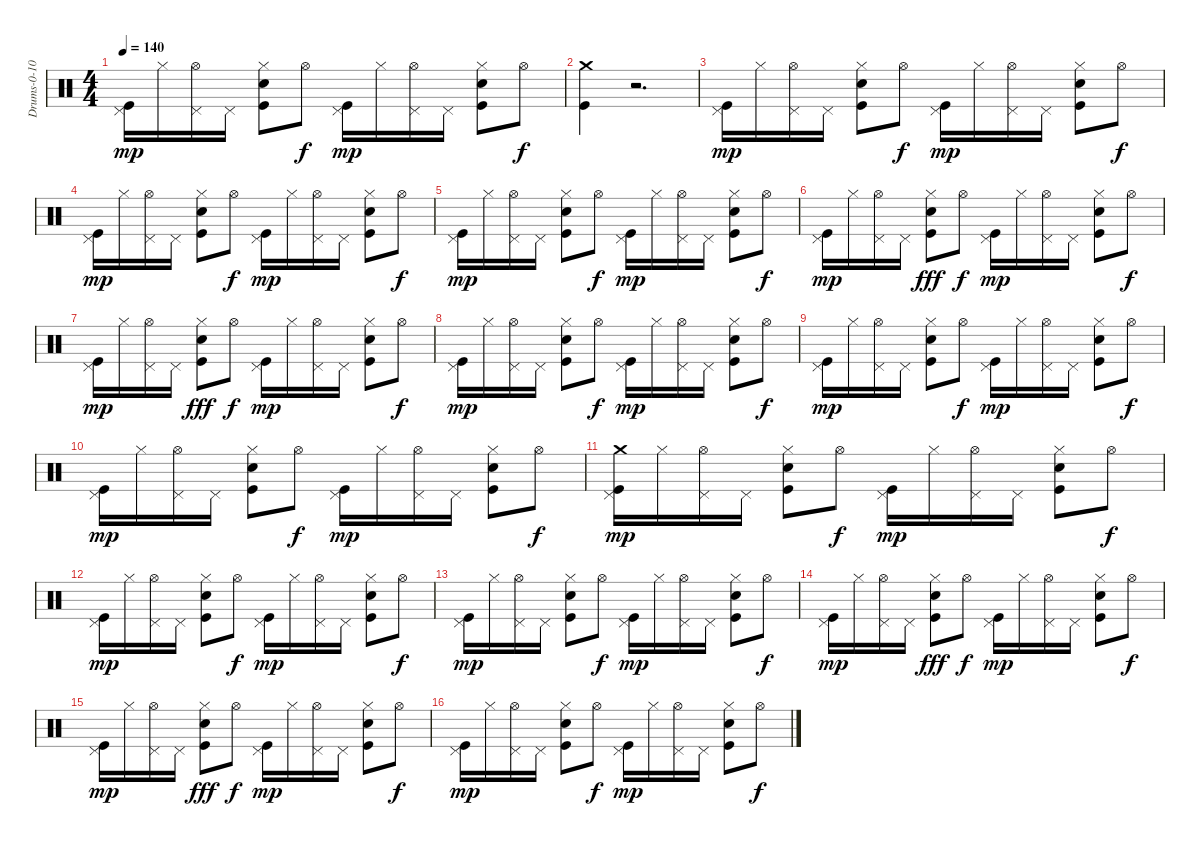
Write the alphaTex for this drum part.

\track ("Drums-0-10" "Drums-0-10") {instrument percussion}
\staff {score}
\articulation defaults
\ts (4 4)
\tempo 140
\clef neutral
\ks c
("Kick (hit)" "Pedal Hi-Hat (hit)").16{dy mp} "Hi-Hat (closed)".16 ("Pedal Hi-Hat (hit)" "Hi-Hat (open)").16 "Pedal Hi-Hat (hit)".16 ("Kick (hit)" "Hand Clap (hit)" "Hi-Hat (closed)").8 "Hi-Hat (open)".8{dy f} ("Kick (hit)" "Pedal Hi-Hat (hit)").16{dy mp} "Hi-Hat (closed)".16 ("Pedal Hi-Hat (hit)" "Hi-Hat (open)").16 "Pedal Hi-Hat (hit)".16 ("Kick (hit)" "Hand Clap (hit)" "Hi-Hat (closed)").8 "Hi-Hat (open)".8{dy f} |
("Crash medium (hit)" "Kick (hit)").4 r.2{d} |
("Kick (hit)" "Pedal Hi-Hat (hit)").16{dy mp} "Hi-Hat (closed)".16 ("Hi-Hat (open)" "Pedal Hi-Hat (hit)").16 "Pedal Hi-Hat (hit)".16 ("Kick (hit)" "Hand Clap (hit)" "Hi-Hat (closed)").8 "Hi-Hat (open)".8{dy f} ("Pedal Hi-Hat (hit)" "Kick (hit)").16{dy mp} "Hi-Hat (closed)".16 ("Pedal Hi-Hat (hit)" "Hi-Hat (open)").16 "Pedal Hi-Hat (hit)".16 ("Hi-Hat (closed)" "Hand Clap (hit)" "Kick (hit)").8 "Hi-Hat (open)".8{dy f} |
("Kick (hit)" "Pedal Hi-Hat (hit)").16{dy mp} "Hi-Hat (closed)".16 ("Hi-Hat (open)" "Pedal Hi-Hat (hit)").16 "Pedal Hi-Hat (hit)".16 ("Kick (hit)" "Hand Clap (hit)" "Hi-Hat (closed)").8 "Hi-Hat (open)".8{dy f} ("Pedal Hi-Hat (hit)" "Kick (hit)").16{dy mp} "Hi-Hat (closed)".16 ("Pedal Hi-Hat (hit)" "Hi-Hat (open)").16 "Pedal Hi-Hat (hit)".16 ("Kick (hit)" "Hand Clap (hit)" "Hi-Hat (closed)").8 "Hi-Hat (open)".8{dy f} |
("Kick (hit)" "Pedal Hi-Hat (hit)").16{dy mp} "Hi-Hat (closed)".16 ("Hi-Hat (open)" "Pedal Hi-Hat (hit)").16 "Pedal Hi-Hat (hit)".16 ("Hand Clap (hit)" "Kick (hit)" "Hi-Hat (closed)").8 "Hi-Hat (open)".8{dy f} ("Kick (hit)" "Pedal Hi-Hat (hit)").16{dy mp} "Hi-Hat (closed)".16 ("Pedal Hi-Hat (hit)" "Hi-Hat (open)").16 "Pedal Hi-Hat (hit)".16 ("Hand Clap (hit)" "Kick (hit)" "Hi-Hat (closed)").8 "Hi-Hat (open)".8{dy f} |
("Pedal Hi-Hat (hit)" "Kick (hit)").16{dy mp} "Hi-Hat (closed)".16 ("Pedal Hi-Hat (hit)" "Hi-Hat (open)").16 "Pedal Hi-Hat (hit)".16 ("Kick (hit)" "Hi-Hat (closed)" "Hand Clap (hit)").8{dy fff} "Hi-Hat (open)".8{dy f} ("Kick (hit)" "Pedal Hi-Hat (hit)").16{dy mp} "Hi-Hat (closed)".16 ("Hi-Hat (open)" "Pedal Hi-Hat (hit)").16 "Pedal Hi-Hat (hit)".16 ("Hand Clap (hit)" "Kick (hit)" "Hi-Hat (closed)").8 "Hi-Hat (open)".8{dy f} |
("Pedal Hi-Hat (hit)" "Kick (hit)").16{dy mp} "Hi-Hat (closed)".16 ("Hi-Hat (open)" "Pedal Hi-Hat (hit)").16 "Pedal Hi-Hat (hit)".16 ("Kick (hit)" "Hi-Hat (closed)" "Hand Clap (hit)").8{dy fff} "Hi-Hat (open)".8{dy f} ("Pedal Hi-Hat (hit)" "Kick (hit)").16{dy mp} "Hi-Hat (closed)".16 ("Pedal Hi-Hat (hit)" "Hi-Hat (open)").16 "Pedal Hi-Hat (hit)".16 ("Hand Clap (hit)" "Kick (hit)" "Hi-Hat (closed)").8 "Hi-Hat (open)".8{dy f} |
("Pedal Hi-Hat (hit)" "Kick (hit)").16{dy mp} "Hi-Hat (closed)".16 ("Hi-Hat (open)" "Pedal Hi-Hat (hit)").16 "Pedal Hi-Hat (hit)".16 ("Kick (hit)" "Hand Clap (hit)" "Hi-Hat (closed)").8 "Hi-Hat (open)".8{dy f} ("Kick (hit)" "Pedal Hi-Hat (hit)").16{dy mp} "Hi-Hat (closed)".16 ("Pedal Hi-Hat (hit)" "Hi-Hat (open)").16 "Pedal Hi-Hat (hit)".16 ("Hand Clap (hit)" "Kick (hit)" "Hi-Hat (closed)").8 "Hi-Hat (open)".8{dy f} |
("Pedal Hi-Hat (hit)" "Kick (hit)").16{dy mp} "Hi-Hat (closed)".16 ("Pedal Hi-Hat (hit)" "Hi-Hat (open)").16 "Pedal Hi-Hat (hit)".16 ("Kick (hit)" "Hand Clap (hit)" "Hi-Hat (closed)").8 "Hi-Hat (open)".8{dy f} ("Kick (hit)" "Pedal Hi-Hat (hit)").16{dy mp} "Hi-Hat (closed)".16 ("Hi-Hat (open)" "Pedal Hi-Hat (hit)").16 "Pedal Hi-Hat (hit)".16 ("Kick (hit)" "Hi-Hat (closed)" "Hand Clap (hit)").8 "Hi-Hat (open)".8{dy f} |
("Pedal Hi-Hat (hit)" "Kick (hit)").16{dy mp} "Hi-Hat (closed)".16 ("Pedal Hi-Hat (hit)" "Hi-Hat (open)").16 "Pedal Hi-Hat (hit)".16 ("Hand Clap (hit)" "Kick (hit)" "Hi-Hat (closed)").8 "Hi-Hat (open)".8{dy f} ("Kick (hit)" "Pedal Hi-Hat (hit)").16{dy mp} "Hi-Hat (closed)".16 ("Hi-Hat (open)" "Pedal Hi-Hat (hit)").16 "Pedal Hi-Hat (hit)".16 ("Kick (hit)" "Hand Clap (hit)" "Hi-Hat (closed)").8 "Hi-Hat (open)".8{dy f} |
("Crash medium (hit)" "Kick (hit)" "Pedal Hi-Hat (hit)").16{dy mp} "Hi-Hat (closed)".16 ("Hi-Hat (open)" "Pedal Hi-Hat (hit)").16 "Pedal Hi-Hat (hit)".16 ("Kick (hit)" "Hand Clap (hit)" "Hi-Hat (closed)").8 "Hi-Hat (open)".8{dy f} ("Pedal Hi-Hat (hit)" "Kick (hit)").16{dy mp} "Hi-Hat (closed)".16 ("Pedal Hi-Hat (hit)" "Hi-Hat (open)").16 "Pedal Hi-Hat (hit)".16 ("Hi-Hat (closed)" "Hand Clap (hit)" "Kick (hit)").8 "Hi-Hat (open)".8{dy f} |
("Kick (hit)" "Pedal Hi-Hat (hit)").16{dy mp} "Hi-Hat (closed)".16 ("Hi-Hat (open)" "Pedal Hi-Hat (hit)").16 "Pedal Hi-Hat (hit)".16 ("Kick (hit)" "Hand Clap (hit)" "Hi-Hat (closed)").8 "Hi-Hat (open)".8{dy f} ("Pedal Hi-Hat (hit)" "Kick (hit)").16{dy mp} "Hi-Hat (closed)".16 ("Pedal Hi-Hat (hit)" "Hi-Hat (open)").16 "Pedal Hi-Hat (hit)".16 ("Kick (hit)" "Hand Clap (hit)" "Hi-Hat (closed)").8 "Hi-Hat (open)".8{dy f} |
("Kick (hit)" "Pedal Hi-Hat (hit)").16{dy mp} "Hi-Hat (closed)".16 ("Hi-Hat (open)" "Pedal Hi-Hat (hit)").16 "Pedal Hi-Hat (hit)".16 ("Hand Clap (hit)" "Kick (hit)" "Hi-Hat (closed)").8 "Hi-Hat (open)".8{dy f} ("Kick (hit)" "Pedal Hi-Hat (hit)").16{dy mp} "Hi-Hat (closed)".16 ("Pedal Hi-Hat (hit)" "Hi-Hat (open)").16 "Pedal Hi-Hat (hit)".16 ("Hand Clap (hit)" "Kick (hit)" "Hi-Hat (closed)").8 "Hi-Hat (open)".8{dy f} |
("Pedal Hi-Hat (hit)" "Kick (hit)").16{dy mp} "Hi-Hat (closed)".16 ("Pedal Hi-Hat (hit)" "Hi-Hat (open)").16 "Pedal Hi-Hat (hit)".16 ("Kick (hit)" "Hi-Hat (closed)" "Hand Clap (hit)").8{dy fff} "Hi-Hat (open)".8{dy f} ("Kick (hit)" "Pedal Hi-Hat (hit)").16{dy mp} "Hi-Hat (closed)".16 ("Hi-Hat (open)" "Pedal Hi-Hat (hit)").16 "Pedal Hi-Hat (hit)".16 ("Hand Clap (hit)" "Kick (hit)" "Hi-Hat (closed)").8 "Hi-Hat (open)".8{dy f} |
("Pedal Hi-Hat (hit)" "Kick (hit)").16{dy mp} "Hi-Hat (closed)".16 ("Hi-Hat (open)" "Pedal Hi-Hat (hit)").16 "Pedal Hi-Hat (hit)".16 ("Kick (hit)" "Hi-Hat (closed)" "Hand Clap (hit)").8{dy fff} "Hi-Hat (open)".8{dy f} ("Pedal Hi-Hat (hit)" "Kick (hit)").16{dy mp} "Hi-Hat (closed)".16 ("Pedal Hi-Hat (hit)" "Hi-Hat (open)").16 "Pedal Hi-Hat (hit)".16 ("Hand Clap (hit)" "Kick (hit)" "Hi-Hat (closed)").8 "Hi-Hat (open)".8{dy f} |
("Pedal Hi-Hat (hit)" "Kick (hit)").16{dy mp} "Hi-Hat (closed)".16 ("Hi-Hat (open)" "Pedal Hi-Hat (hit)").16 "Pedal Hi-Hat (hit)".16 ("Kick (hit)" "Hand Clap (hit)" "Hi-Hat (closed)").8 "Hi-Hat (open)".8{dy f} ("Kick (hit)" "Pedal Hi-Hat (hit)").16{dy mp} "Hi-Hat (closed)".16 ("Pedal Hi-Hat (hit)" "Hi-Hat (open)").16 "Pedal Hi-Hat (hit)".16 ("Hand Clap (hit)" "Kick (hit)" "Hi-Hat (closed)").8 "Hi-Hat (open)".8{dy f}
